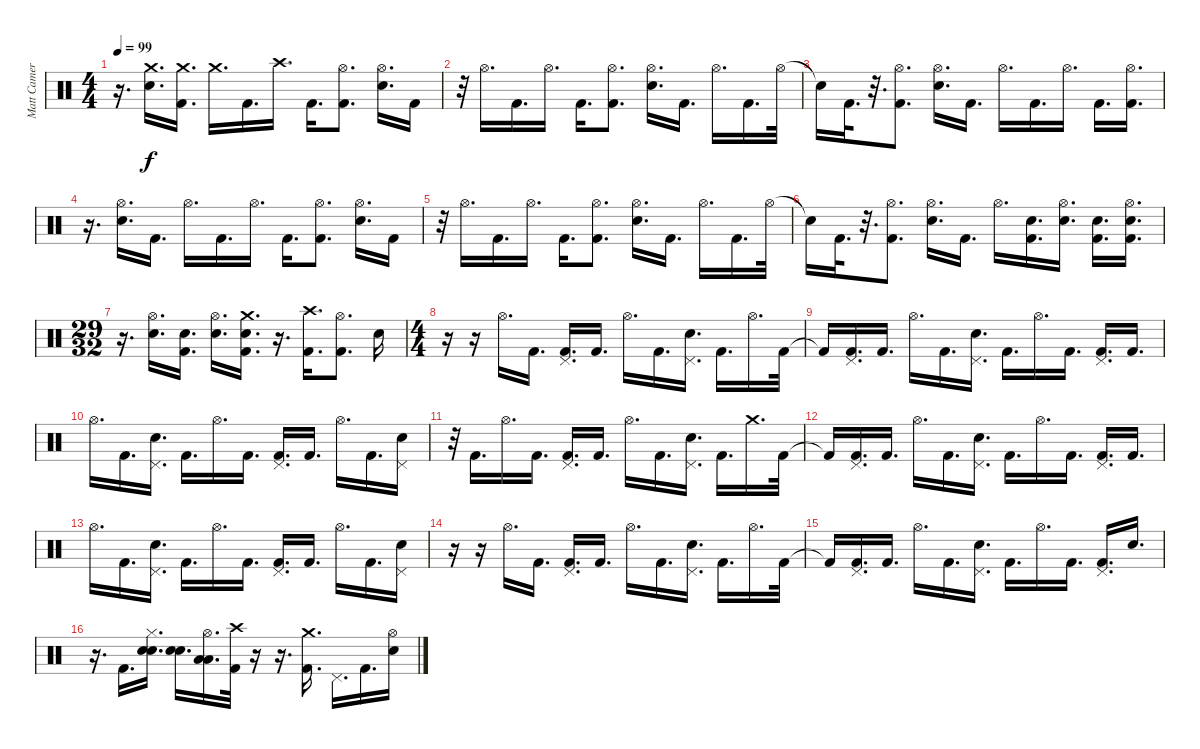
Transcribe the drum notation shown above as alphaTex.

\track ("Matt Cameron" "Matt Camer") {instrument percussion}
\staff {score}
\articulation defaults
\ts (4 4)
\tempo 99
\clef neutral
\ks c
r.16{d dy f} ("Crash medium (hit)" "Electric Snare (hit)").16{d} ("Crash medium (hit)" "Kick (hit) 2").16{d} "Crash medium (hit)".16{d} "Kick (hit) 2".16{d} "Crash high (hit)".16{d} "Kick (hit) 2".16{d} ("Hi-Hat (open)" "Kick (hit) 2").8{d} ("Hi-Hat (open)" "Electric Snare (hit)").16{d} "Kick (hit) 2".16 |
r.32 "Hi-Hat (open)".16{d} "Kick (hit) 2".16{d} "Hi-Hat (open)".16{d} "Kick (hit) 2".16{d} ("Hi-Hat (open)" "Kick (hit) 2").8{d} ("Hi-Hat (open)" "Electric Snare (hit)").16{d} "Kick (hit) 2".16{d} "Hi-Hat (open)".16{d} "Kick (hit) 2".16{d} "Hi-Hat (open)".32 |
"Snare (hit)"{t}.16 "Kick (hit) 2".32{d} r.32{d} ("Hi-Hat (open)" "Kick (hit) 2").8{d} ("Hi-Hat (open)" "Electric Snare (hit)").16{d} "Kick (hit) 2".16{d} "Hi-Hat (open)".16{d} "Kick (hit) 2".16{d} "Hi-Hat (open)".16{d} "Kick (hit) 2".16{d} ("Hi-Hat (open)" "Kick (hit) 2").16{d} |
r.16{d} ("Hi-Hat (open)" "Electric Snare (hit)").16{d} "Kick (hit) 2".16{d} "Hi-Hat (open)".16{d} "Kick (hit) 2".16{d} "Hi-Hat (open)".16{d} "Kick (hit) 2".16{d} ("Hi-Hat (open)" "Kick (hit) 2").8{d} ("Hi-Hat (open)" "Electric Snare (hit)").16{d} "Kick (hit) 2".16 |
r.32 "Hi-Hat (open)".16{d} "Kick (hit) 2".16{d} "Hi-Hat (open)".16{d} "Kick (hit) 2".16{d} ("Hi-Hat (open)" "Kick (hit) 2").8{d} ("Hi-Hat (open)" "Electric Snare (hit)").16{d} "Kick (hit) 2".16{d} "Hi-Hat (open)".16{d} "Kick (hit) 2".16{d} "Hi-Hat (open)".32 |
"Snare (hit)"{t}.16 "Kick (hit) 2".32{d} r.32{d} ("Hi-Hat (open)" "Kick (hit) 2").8{d} ("Hi-Hat (open)" "Electric Snare (hit)").16{d} "Kick (hit) 2".16{d} "Hi-Hat (open)".16{d} ("Electric Snare (hit)" "Kick (hit) 2").16{d} ("Hi-Hat (open)" "Electric Snare (hit)").16{d} ("Electric Snare (hit)" "Kick (hit) 2").16{d} ("Hi-Hat (open)" "Electric Snare (hit)" "Kick (hit) 2").16{d} |
\ts (29 32)
r.16{d} ("Hi-Hat (open)" "Electric Snare (hit)").16{d} ("Electric Snare (hit)" "Kick (hit) 2").16{d} ("Hi-Hat (open)" "Electric Snare (hit)").16{d} ("Crash medium (hit)" "Electric Snare (hit)" "Kick (hit) 2").16{d} r.16{d} ("Crash high (hit)" "Kick (hit) 2").16{d} ("Hi-Hat (open)" "Kick (hit) 2").8{d} "Electric Snare (hit)".16 |
\ts (4 4)
r.16 r.16 "Hi-Hat (open)".16{d} "Kick (hit) 2".16{d} ("Pedal Hi-Hat (hit)" "Kick (hit) 2").16{d} "Kick (hit) 2".16{d} "Hi-Hat (open)".16{d} "Kick (hit) 2".16{d} ("Pedal Hi-Hat (hit)" "Electric Snare (hit)").16{d} "Kick (hit) 2".16{d} "Hi-Hat (open)".16{d} "Kick (hit) 2".32 |
"Kick (hit) 2"{t}.16 ("Pedal Hi-Hat (hit)" "Kick (hit) 2").16{d} "Kick (hit) 2".16{d} "Hi-Hat (open)".16{d} "Kick (hit) 2".16{d} ("Pedal Hi-Hat (hit)" "Electric Snare (hit)").16{d} "Kick (hit) 2".16{d} "Hi-Hat (open)".16{d} "Kick (hit) 2".16{d} ("Pedal Hi-Hat (hit)" "Kick (hit) 2").16{d} "Kick (hit) 2".16{d} |
"Hi-Hat (open)".16{d} "Kick (hit) 2".16{d} ("Pedal Hi-Hat (hit)" "Electric Snare (hit)").16{d} "Kick (hit) 2".16{d} "Hi-Hat (open)".16{d} "Kick (hit) 2".16{d} ("Pedal Hi-Hat (hit)" "Kick (hit) 2").16{d} "Kick (hit) 2".16{d} "Hi-Hat (open)".16{d} "Kick (hit) 2".16{d} ("Pedal Hi-Hat (hit)" "Electric Snare (hit)").16 |
r.32 "Kick (hit) 2".16{d} "Hi-Hat (open)".16{d} "Kick (hit) 2".16{d} ("Pedal Hi-Hat (hit)" "Kick (hit) 2").16{d} "Kick (hit) 2".16{d} "Hi-Hat (open)".16{d} "Kick (hit) 2".16{d} ("Pedal Hi-Hat (hit)" "Electric Snare (hit)").16{d} "Kick (hit) 2".16{d} "Crash medium (hit)".16{d} "Kick (hit) 2".32 |
"Kick (hit) 2"{t}.16 ("Pedal Hi-Hat (hit)" "Kick (hit) 2").16{d} "Kick (hit) 2".16{d} "Hi-Hat (open)".16{d} "Kick (hit) 2".16{d} ("Pedal Hi-Hat (hit)" "Electric Snare (hit)").16{d} "Kick (hit) 2".16{d} "Hi-Hat (open)".16{d} "Kick (hit) 2".16{d} ("Pedal Hi-Hat (hit)" "Kick (hit) 2").16{d} "Kick (hit) 2".16{d} |
"Hi-Hat (open)".16{d} "Kick (hit) 2".16{d} ("Pedal Hi-Hat (hit)" "Electric Snare (hit)").16{d} "Kick (hit) 2".16{d} "Hi-Hat (open)".16{d} "Kick (hit) 2".16{d} ("Pedal Hi-Hat (hit)" "Kick (hit) 2").16{d} "Kick (hit) 2".16{d} "Hi-Hat (open)".16{d} "Kick (hit) 2".16{d} ("Pedal Hi-Hat (hit)" "Electric Snare (hit)").16 |
r.16 r.16 "Hi-Hat (open)".16{d} "Kick (hit) 2".16{d} ("Pedal Hi-Hat (hit)" "Kick (hit) 2").16{d} "Kick (hit) 2".16{d} "Hi-Hat (open)".16{d} "Kick (hit) 2".16{d} ("Pedal Hi-Hat (hit)" "Electric Snare (hit)").16{d} "Kick (hit) 2".16{d} "Hi-Hat (open)".16{d} "Kick (hit) 2".32 |
"Kick (hit) 2"{t}.16 ("Pedal Hi-Hat (hit)" "Kick (hit) 2").16{d} "Kick (hit) 2".16{d} "Hi-Hat (open)".16{d} "Kick (hit) 2".16{d} ("Pedal Hi-Hat (hit)" "Electric Snare (hit)").16{d} "Kick (hit) 2".16{d} "Hi-Hat (open)".16{d} "Kick (hit) 2".16{d} ("Pedal Hi-Hat (hit)" "Kick (hit) 2").16{d} "Electric Snare (hit)".16{d} |
r.16{d} "Kick (hit) 2".16{d} ("Hi-Hat (closed)" "Electric Snare (hit)" "Electric Snare (hit)").16{d} ("Electric Snare (hit)" "Electric Snare (hit)").16{d} ("Hi-Hat (open)" "Low Floor Tom (hit)" "Low Floor Tom (hit)").16{d} ("Crash high (hit)" "Kick (hit) 2").32 r.16 r.16{d} ("Crash medium (hit)" "Kick (hit) 2").16{d} "Pedal Hi-Hat (hit)".16{d} "Kick (hit) 2".16{d} ("Hi-Hat (open)" "Electric Snare (hit)").16
